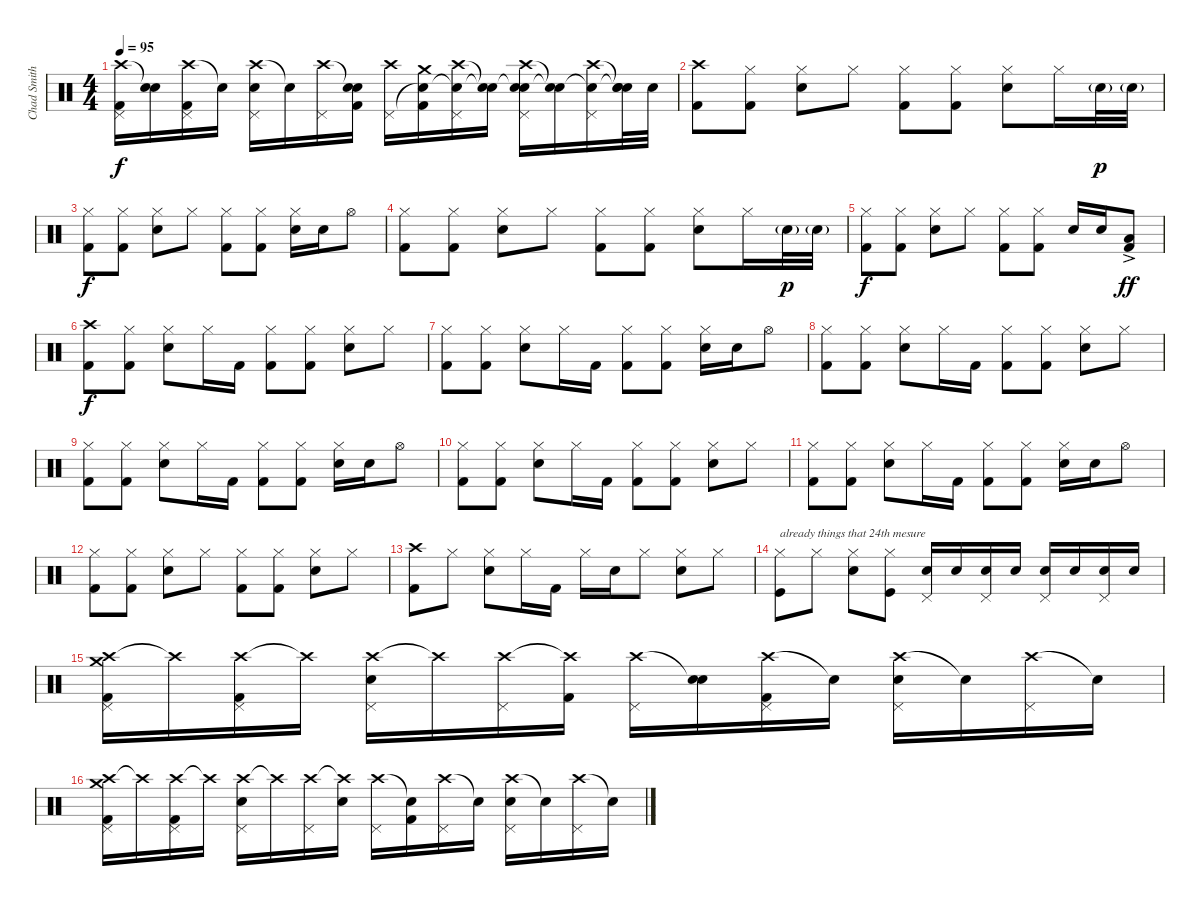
\track ("Chad Smith" "Chad Smith") {instrument percussion}
\staff {score}
\articulation defaults
\ts (4 4)
\tempo 95
\clef neutral
\ks c
("Crash high (hit)" "Pedal Hi-Hat (hit)" "Kick (hit) 2").16{dy f} ("Snare (hit)"{t} "Snare (hit) 2").16 ("Crash high (hit)" "Pedal Hi-Hat (hit)" "Kick (hit) 2").16 "Snare (hit)"{t}.16 ("Crash high (hit)" "Snare (hit) 2" "Pedal Hi-Hat (hit)").16 "Snare (hit)"{t}.16 ("Crash high (hit)" "Pedal Hi-Hat (hit)").16 ("Snare (hit)"{t} "Snare (hit) 2" "Kick (hit) 2").16 ("Crash high (hit)" "Pedal Hi-Hat (hit)").16 ("Crash medium (hit)" "Snare (hit)"{t} "Kick (hit) 2").16 ("Crash high (hit)" "Snare (hit)"{t} "Pedal Hi-Hat (hit)").16 ("Snare (hit)"{t} "Snare (hit)"{t}).16 ("Crash high (hit)" "Snare (hit)"{t} "Snare (hit) 2" "Pedal Hi-Hat (hit)").16 ("Snare (hit)"{t} "Snare (hit)"{t}).16 ("Crash high (hit)" "Snare (hit)"{t} "Pedal Hi-Hat (hit)").16 ("Snare (hit)"{t} "Snare (hit)"{t} "Snare (hit) 2").32 "Snare (hit) 2".32 |
("Crash high (hit)" "Kick (hit) 2").8 ("Hi-Hat (closed)" "Kick (hit) 2").8 ("Hi-Hat (closed)" "Snare (hit) 2").8 "Hi-Hat (closed)".8 ("Hi-Hat (closed)" "Kick (hit) 2").8 ("Hi-Hat (closed)" "Kick (hit) 2").8 ("Hi-Hat (closed)" "Snare (hit) 2").8 "Hi-Hat (closed)".16 "Snare (hit) 2"{g}.32{dy p} "Snare (hit) 2"{g}.32 |
("Hi-Hat (closed)" "Kick (hit) 2").8{dy f} ("Hi-Hat (closed)" "Kick (hit) 2").8 ("Hi-Hat (closed)" "Snare (hit) 2").8 "Hi-Hat (closed)".8 ("Hi-Hat (closed)" "Kick (hit) 2").8 ("Hi-Hat (closed)" "Kick (hit) 2").8 ("Hi-Hat (closed)" "Snare (hit) 2").16 "Snare (hit) 2".16 "Hi-Hat (open)".8 |
("Hi-Hat (closed)" "Kick (hit) 2").8 ("Hi-Hat (closed)" "Kick (hit) 2").8 ("Hi-Hat (closed)" "Snare (hit) 2").8 "Hi-Hat (closed)".8 ("Hi-Hat (closed)" "Kick (hit) 2").8 ("Hi-Hat (closed)" "Kick (hit) 2").8 ("Hi-Hat (closed)" "Snare (hit) 2").8 "Hi-Hat (closed)".16 "Snare (hit) 2"{g}.32{dy p} "Snare (hit) 2"{g}.32 |
("Hi-Hat (closed)" "Kick (hit) 2").8{dy f} ("Hi-Hat (closed)" "Kick (hit) 2").8 ("Hi-Hat (closed)" "Snare (hit) 2").8 "Hi-Hat (closed)".8 ("Hi-Hat (closed)" "Kick (hit) 2").8 ("Hi-Hat (closed)" "Kick (hit) 2").8 "Snare (hit) 2".16 "Snare (hit) 2".16 ("Low Tom (hit)"{ac} "Kick (hit) 2"{ac}).8{dy ff} |
("Crash high (hit)" "Kick (hit) 2").8{dy f} ("Hi-Hat (closed)" "Kick (hit) 2").8 ("Hi-Hat (closed)" "Snare (hit) 2").8 "Hi-Hat (closed)".16 "Kick (hit) 2".16 ("Hi-Hat (closed)" "Kick (hit) 2").8 ("Hi-Hat (closed)" "Kick (hit) 2").8 ("Hi-Hat (closed)" "Snare (hit) 2").8 "Hi-Hat (closed)".8 |
("Hi-Hat (closed)" "Kick (hit) 2").8 ("Hi-Hat (closed)" "Kick (hit) 2").8 ("Hi-Hat (closed)" "Snare (hit) 2").8 "Hi-Hat (closed)".16 "Kick (hit) 2".16 ("Hi-Hat (closed)" "Kick (hit) 2").8 ("Hi-Hat (closed)" "Kick (hit) 2").8 ("Hi-Hat (closed)" "Snare (hit) 2").16 "Snare (hit) 2".16 "Hi-Hat (open)".8 |
("Hi-Hat (closed)" "Kick (hit) 2").8 ("Hi-Hat (closed)" "Kick (hit) 2").8 ("Hi-Hat (closed)" "Snare (hit) 2").8 "Hi-Hat (closed)".16 "Kick (hit) 2".16 ("Hi-Hat (closed)" "Kick (hit) 2").8 ("Hi-Hat (closed)" "Kick (hit) 2").8 ("Hi-Hat (closed)" "Snare (hit) 2").8 "Hi-Hat (closed)".8 |
("Hi-Hat (closed)" "Kick (hit) 2").8 ("Hi-Hat (closed)" "Kick (hit) 2").8 ("Hi-Hat (closed)" "Snare (hit) 2").8 "Hi-Hat (closed)".16 "Kick (hit) 2".16 ("Hi-Hat (closed)" "Kick (hit) 2").8 ("Hi-Hat (closed)" "Kick (hit) 2").8 ("Hi-Hat (closed)" "Snare (hit) 2").16 "Snare (hit) 2".16 "Hi-Hat (open)".8 |
("Hi-Hat (closed)" "Kick (hit) 2").8 ("Hi-Hat (closed)" "Kick (hit) 2").8 ("Hi-Hat (closed)" "Snare (hit) 2").8 "Hi-Hat (closed)".16 "Kick (hit) 2".16 ("Hi-Hat (closed)" "Kick (hit) 2").8 ("Hi-Hat (closed)" "Kick (hit) 2").8 ("Hi-Hat (closed)" "Snare (hit) 2").8 "Hi-Hat (closed)".8 |
("Hi-Hat (closed)" "Kick (hit) 2").8 ("Hi-Hat (closed)" "Kick (hit) 2").8 ("Hi-Hat (closed)" "Snare (hit) 2").8 "Hi-Hat (closed)".16 "Kick (hit) 2".16 ("Hi-Hat (closed)" "Kick (hit) 2").8 ("Hi-Hat (closed)" "Kick (hit) 2").8 ("Hi-Hat (closed)" "Snare (hit) 2").16 "Snare (hit) 2".16 "Hi-Hat (open)".8 |
("Hi-Hat (closed)" "Kick (hit) 2").8 ("Hi-Hat (closed)" "Kick (hit) 2").8 ("Hi-Hat (closed)" "Snare (hit) 2").8 "Hi-Hat (closed)".8 ("Hi-Hat (closed)" "Kick (hit) 2").8 ("Hi-Hat (closed)" "Kick (hit) 2").8 ("Hi-Hat (closed)" "Snare (hit) 2").8 "Hi-Hat (closed)".8 |
("Crash high (hit)" "Kick (hit) 2").8 "Hi-Hat (closed)".8 ("Hi-Hat (closed)" "Snare (hit) 2").8 "Hi-Hat (closed)".16 "Kick (hit) 2".16 "Hi-Hat (closed)".16 "Snare (hit) 2".16 "Hi-Hat (closed)".8 ("Hi-Hat (closed)" "Snare (hit) 2").8 "Hi-Hat (closed)".8 |
("Hi-Hat (closed)" "Kick (hit)").8{txt "already things that 24th mesure"} "Hi-Hat (closed)".8 ("Hi-Hat (closed)" "Snare (hit) 2").8 ("Hi-Hat (closed)" "Kick (hit)").8 ("Snare (hit) 2" "Pedal Hi-Hat (hit)").16 "Snare (hit) 2".16 ("Snare (hit) 2" "Pedal Hi-Hat (hit)").16 "Snare (hit) 2".16 ("Snare (hit) 2" "Pedal Hi-Hat (hit)").16 "Snare (hit) 2".16 ("Snare (hit) 2" "Pedal Hi-Hat (hit)").16 "Snare (hit) 2".16 |
("Crash high (hit)" "Crash medium (hit)" "Pedal Hi-Hat (hit)" "Kick (hit) 2").16 "Crash high (hit)"{t}.16 ("Crash high (hit)" "Pedal Hi-Hat (hit)" "Kick (hit) 2").16 "Crash high (hit)"{t}.16 ("Crash high (hit)" "Snare (hit) 2" "Pedal Hi-Hat (hit)").16 "Crash high (hit)"{t}.16 ("Crash high (hit)" "Pedal Hi-Hat (hit)").16 ("Crash high (hit)"{t} "Kick (hit) 2").16 ("Crash high (hit)" "Pedal Hi-Hat (hit)").16 ("Snare (hit)"{t} "Snare (hit) 2").16 ("Crash high (hit)" "Pedal Hi-Hat (hit)" "Kick (hit) 2").16 "Snare (hit)"{t}.16 ("Crash high (hit)" "Snare (hit) 2" "Pedal Hi-Hat (hit)").16 "Snare (hit)"{t}.16 ("Crash high (hit)" "Pedal Hi-Hat (hit)").16 "Snare (hit)"{t}.16 |
("Crash high (hit)" "Crash medium (hit)" "Pedal Hi-Hat (hit)" "Kick (hit) 2").16 "Crash high (hit)"{t}.16 ("Crash high (hit)" "Pedal Hi-Hat (hit)" "Kick (hit) 2").16 "Crash high (hit)"{t}.16 ("Crash high (hit)" "Snare (hit) 2" "Pedal Hi-Hat (hit)").16 "Crash high (hit)"{t}.16 ("Crash high (hit)" "Pedal Hi-Hat (hit)").16 ("Crash high (hit)"{t} "Snare (hit) 2").16 ("Crash high (hit)" "Pedal Hi-Hat (hit)").16 ("Snare (hit)"{t} "Kick (hit) 2").16 ("Crash high (hit)" "Pedal Hi-Hat (hit)").16 "Snare (hit)"{t}.16 ("Crash high (hit)" "Snare (hit) 2" "Pedal Hi-Hat (hit)").16 "Snare (hit)"{t}.16 ("Crash high (hit)" "Pedal Hi-Hat (hit)").16 "Snare (hit)"{t}.16
